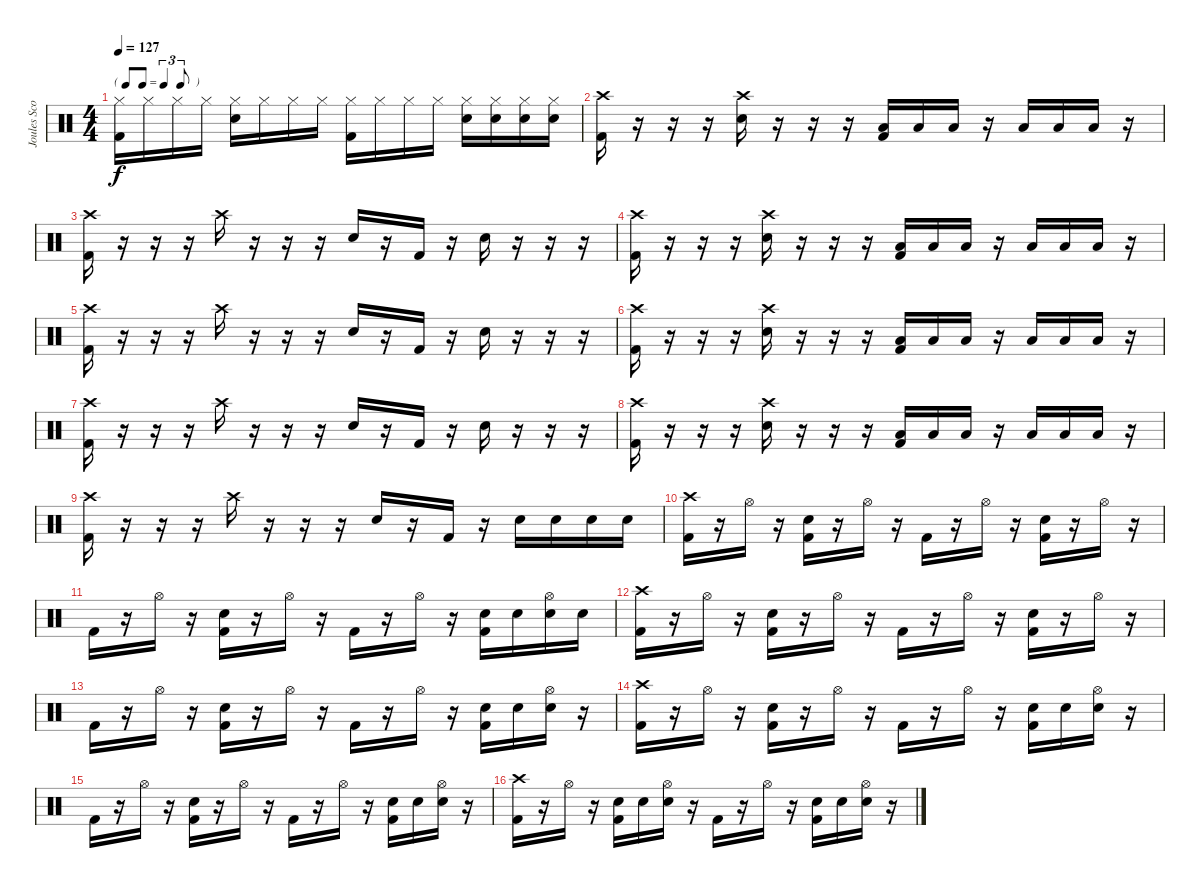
\track ("Joules Scott-Key" "Joules Sco") {instrument percussion}
\staff {score}
\articulation defaults
\ts (4 4)
\tf triplet8th
\tempo 127
\clef neutral
\ks c
("Hi-Hat (closed)" "Kick (hit) 2").16{dy f} "Hi-Hat (closed)".16 "Hi-Hat (closed)".16 "Hi-Hat (closed)".16 ("Hi-Hat (closed)" "Electric Snare (hit)").16 "Hi-Hat (closed)".16 "Hi-Hat (closed)".16 "Hi-Hat (closed)".16 ("Hi-Hat (closed)" "Kick (hit) 2").16 "Hi-Hat (closed)".16 "Hi-Hat (closed)".16 "Hi-Hat (closed)".16 ("Hi-Hat (closed)" "Electric Snare (hit)").16 ("Hi-Hat (closed)" "Electric Snare (hit)").16 ("Hi-Hat (closed)" "Electric Snare (hit)").16 ("Hi-Hat (closed)" "Electric Snare (hit)").16 |
("Crash high (hit)" "Kick (hit) 2").16 r.16 r.16 r.16 ("Crash high (hit)" "Electric Snare (hit)").16 r.16 r.16 r.16 ("Low Tom (hit)" "Kick (hit) 2").16 "Low Tom (hit)".16 "Low Tom (hit)".16 r.16 "Low Tom (hit)".16 "Low Tom (hit)".16 "Low Tom (hit)".16 r.16 |
("Crash high (hit)" "Kick (hit) 2").16 r.16 r.16 r.16 "Crash high (hit)".16 r.16 r.16 r.16 "Electric Snare (hit)".16 r.16 "Kick (hit) 2".16 r.16 "Electric Snare (hit)".16 r.16 r.16 r.16 |
("Crash high (hit)" "Kick (hit) 2").16 r.16 r.16 r.16 ("Crash high (hit)" "Electric Snare (hit)").16 r.16 r.16 r.16 ("Low Tom (hit)" "Kick (hit) 2").16 "Low Tom (hit)".16 "Low Tom (hit)".16 r.16 "Low Tom (hit)".16 "Low Tom (hit)".16 "Low Tom (hit)".16 r.16 |
("Crash high (hit)" "Kick (hit) 2").16 r.16 r.16 r.16 "Crash high (hit)".16 r.16 r.16 r.16 "Electric Snare (hit)".16 r.16 "Kick (hit) 2".16 r.16 "Electric Snare (hit)".16 r.16 r.16 r.16 |
("Crash high (hit)" "Kick (hit) 2").16 r.16 r.16 r.16 ("Crash high (hit)" "Electric Snare (hit)").16 r.16 r.16 r.16 ("Low Tom (hit)" "Kick (hit) 2").16 "Low Tom (hit)".16 "Low Tom (hit)".16 r.16 "Low Tom (hit)".16 "Low Tom (hit)".16 "Low Tom (hit)".16 r.16 |
("Crash high (hit)" "Kick (hit) 2").16 r.16 r.16 r.16 "Crash high (hit)".16 r.16 r.16 r.16 "Electric Snare (hit)".16 r.16 "Kick (hit) 2".16 r.16 "Electric Snare (hit)".16 r.16 r.16 r.16 |
("Crash high (hit)" "Kick (hit) 2").16 r.16 r.16 r.16 ("Crash high (hit)" "Electric Snare (hit)").16 r.16 r.16 r.16 ("Low Tom (hit)" "Kick (hit) 2").16 "Low Tom (hit)".16 "Low Tom (hit)".16 r.16 "Low Tom (hit)".16 "Low Tom (hit)".16 "Low Tom (hit)".16 r.16 |
("Crash high (hit)" "Kick (hit) 2").16 r.16 r.16 r.16 "Crash high (hit)".16 r.16 r.16 r.16 "Electric Snare (hit)".16 r.16 "Kick (hit) 2".16 r.16 "Electric Snare (hit)".16 "Electric Snare (hit)".16 "Electric Snare (hit)".16 "Electric Snare (hit)".16 |
("Crash high (hit)" "Kick (hit) 2").16 r.16 "Hi-Hat (open)".16 r.16 ("Electric Snare (hit)" "Kick (hit) 2").16 r.16 "Hi-Hat (open)".16 r.16 "Kick (hit) 2".16 r.16 "Hi-Hat (open)".16 r.16 ("Electric Snare (hit)" "Kick (hit) 2").16 r.16 "Hi-Hat (open)".16 r.16 |
"Kick (hit) 2".16 r.16 "Hi-Hat (open)".16 r.16 ("Electric Snare (hit)" "Kick (hit) 2").16 r.16 "Hi-Hat (open)".16 r.16 "Kick (hit) 2".16 r.16 "Hi-Hat (open)".16 r.16 ("Electric Snare (hit)" "Kick (hit) 2").16 "Electric Snare (hit)".16 ("Hi-Hat (open)" "Electric Snare (hit)").16 "Electric Snare (hit)".16 |
("Crash high (hit)" "Kick (hit) 2").16 r.16 "Hi-Hat (open)".16 r.16 ("Electric Snare (hit)" "Kick (hit) 2").16 r.16 "Hi-Hat (open)".16 r.16 "Kick (hit) 2".16 r.16 "Hi-Hat (open)".16 r.16 ("Electric Snare (hit)" "Kick (hit) 2").16 r.16 "Hi-Hat (open)".16 r.16 |
"Kick (hit) 2".16 r.16 "Hi-Hat (open)".16 r.16 ("Electric Snare (hit)" "Kick (hit) 2").16 r.16 "Hi-Hat (open)".16 r.16 "Kick (hit) 2".16 r.16 "Hi-Hat (open)".16 r.16 ("Electric Snare (hit)" "Kick (hit) 2").16 "Electric Snare (hit)".16 ("Hi-Hat (open)" "Electric Snare (hit)").16 r.16 |
("Crash high (hit)" "Kick (hit) 2").16 r.16 "Hi-Hat (open)".16 r.16 ("Electric Snare (hit)" "Kick (hit) 2").16 r.16 "Hi-Hat (open)".16 r.16 "Kick (hit) 2".16 r.16 "Hi-Hat (open)".16 r.16 ("Electric Snare (hit)" "Kick (hit) 2").16 "Electric Snare (hit)".16 ("Hi-Hat (open)" "Electric Snare (hit)").16 r.16 |
"Kick (hit) 2".16 r.16 "Hi-Hat (open)".16 r.16 ("Electric Snare (hit)" "Kick (hit) 2").16 r.16 "Hi-Hat (open)".16 r.16 "Kick (hit) 2".16 r.16 "Hi-Hat (open)".16 r.16 ("Electric Snare (hit)" "Kick (hit) 2").16 "Electric Snare (hit)".16 ("Hi-Hat (open)" "Electric Snare (hit)").16 r.16 |
("Crash high (hit)" "Kick (hit) 2").16 r.16 "Hi-Hat (open)".16 r.16 ("Electric Snare (hit)" "Kick (hit) 2").16 "Electric Snare (hit)".16 ("Hi-Hat (open)" "Electric Snare (hit)").16 r.16 "Kick (hit) 2".16 r.16 "Hi-Hat (open)".16 r.16 ("Electric Snare (hit)" "Kick (hit) 2").16 "Electric Snare (hit)".16 ("Hi-Hat (open)" "Electric Snare (hit)").16 r.16
